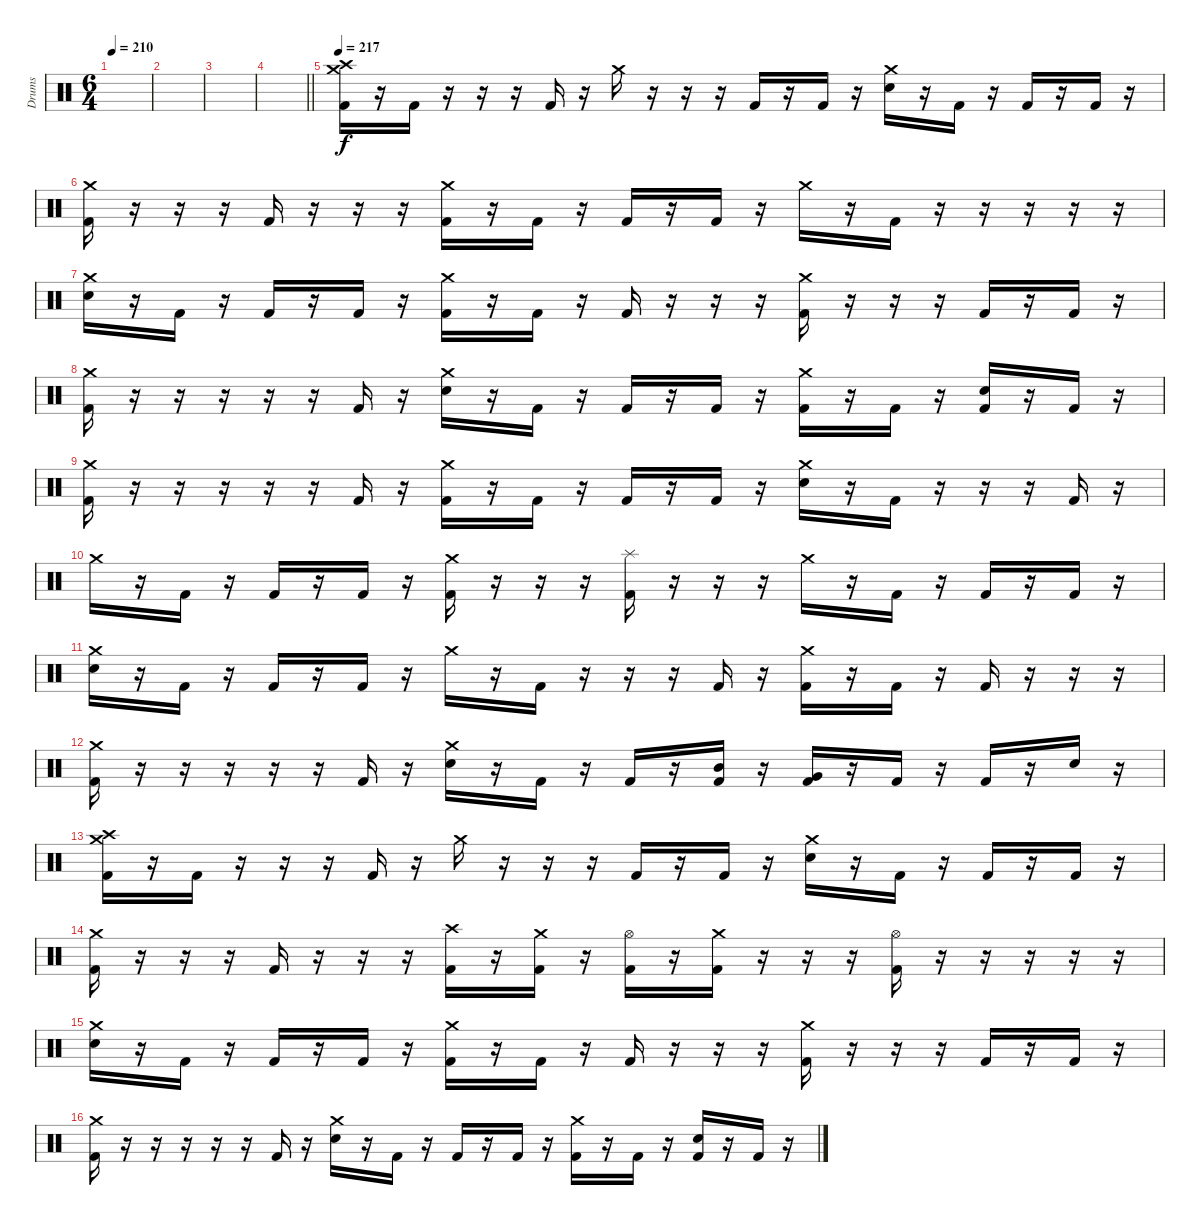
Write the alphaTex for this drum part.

\track ("Drums" "Drums") {instrument percussion}
\staff {score}
\articulation defaults
\ts (6 4)
\tempo 210
\clef neutral
\ks c
|
|
|
\barLineRight lightlight
|
\section ("" "")
\tempo 217
("Crash medium (hit)" "Crash high (hit)" "Kick (hit) 2").16 r.16 "Kick (hit) 2".16 r.16 r.16 r.16 "Kick (hit) 2".16 r.16 "Crash medium (hit)".16 r.16 r.16 r.16 "Kick (hit) 2".16 r.16 "Kick (hit) 2".16 r.16 ("Crash medium (hit)" "Electric Snare (hit)").16 r.16 "Kick (hit) 2".16 r.16 "Kick (hit) 2".16 r.16 "Kick (hit) 2".16 r.16 |
("Crash medium (hit)" "Kick (hit) 2").16 r.16 r.16 r.16 "Kick (hit) 2".16 r.16 r.16 r.16 ("Crash medium (hit)" "Kick (hit) 2").16 r.16 "Kick (hit) 2".16 r.16 "Kick (hit) 2".16 r.16 "Kick (hit) 2".16 r.16 "Crash medium (hit)".16 r.16 "Kick (hit) 2".16 r.16 r.16 r.16 r.16 r.16 |
("Crash medium (hit)" "Electric Snare (hit)").16 r.16 "Kick (hit) 2".16 r.16 "Kick (hit) 2".16 r.16 "Kick (hit) 2".16 r.16 ("Crash medium (hit)" "Kick (hit) 2").16 r.16 "Kick (hit) 2".16 r.16 "Kick (hit) 2".16 r.16 r.16 r.16 ("Crash medium (hit)" "Kick (hit) 2").16 r.16 r.16 r.16 "Kick (hit) 2".16 r.16 "Kick (hit) 2".16 r.16 |
("Crash medium (hit)" "Kick (hit) 2").16 r.16 r.16 r.16 r.16 r.16 "Kick (hit) 2".16 r.16 ("Crash medium (hit)" "Electric Snare (hit)").16 r.16 "Kick (hit) 2".16 r.16 "Kick (hit) 2".16 r.16 "Kick (hit) 2".16 r.16 ("Crash medium (hit)" "Kick (hit) 2").16 r.16 "Kick (hit) 2".16 r.16 ("Electric Snare (hit)" "Kick (hit) 2").16 r.16 "Kick (hit) 2".16 r.16 |
("Crash medium (hit)" "Kick (hit) 2").16 r.16 r.16 r.16 r.16 r.16 "Kick (hit) 2".16 r.16 ("Crash medium (hit)" "Kick (hit) 2").16 r.16 "Kick (hit) 2".16 r.16 "Kick (hit) 2".16 r.16 "Kick (hit) 2".16 r.16 ("Crash medium (hit)" "Electric Snare (hit)").16 r.16 "Kick (hit) 2".16 r.16 r.16 r.16 "Kick (hit) 2".16 r.16 |
"Crash medium (hit)".16 r.16 "Kick (hit) 2".16 r.16 "Kick (hit) 2".16 r.16 "Kick (hit) 2".16 r.16 ("Crash medium (hit)" "Kick (hit) 2").16 r.16 r.16 r.16 ("Splash (hit)" "Kick (hit) 2").16 r.16 r.16 r.16 "Crash medium (hit)".16 r.16 "Kick (hit) 2".16 r.16 "Kick (hit) 2".16 r.16 "Kick (hit) 2".16 r.16 |
("Crash medium (hit)" "Electric Snare (hit)").16 r.16 "Kick (hit) 2".16 r.16 "Kick (hit) 2".16 r.16 "Kick (hit) 2".16 r.16 "Crash medium (hit)".16 r.16 "Kick (hit) 2".16 r.16 r.16 r.16 "Kick (hit) 2".16 r.16 ("Crash medium (hit)" "Kick (hit) 2").16 r.16 "Kick (hit) 2".16 r.16 "Kick (hit) 2".16 r.16 r.16 r.16 |
("Crash medium (hit)" "Kick (hit) 2").16 r.16 r.16 r.16 r.16 r.16 "Kick (hit) 2".16 r.16 ("Crash medium (hit)" "Electric Snare (hit)").16 r.16 "Kick (hit) 2".16 r.16 "Kick (hit) 2".16 r.16 ("Mid Tom (hit)" "Kick (hit) 2").16 r.16 ("Very Low Tom (hit)" "Kick (hit) 2").16 r.16 "Kick (hit) 2".16 r.16 "Kick (hit) 2".16 r.16 "Electric Snare (hit)".16 r.16 |
("Crash medium (hit)" "Crash high (hit)" "Kick (hit) 2").16 r.16 "Kick (hit) 2".16 r.16 r.16 r.16 "Kick (hit) 2".16 r.16 "Crash medium (hit)".16 r.16 r.16 r.16 "Kick (hit) 2".16 r.16 "Kick (hit) 2".16 r.16 ("Crash medium (hit)" "Electric Snare (hit)").16 r.16 "Kick (hit) 2".16 r.16 "Kick (hit) 2".16 r.16 "Kick (hit) 2".16 r.16 |
("Crash medium (hit)" "Kick (hit) 2").16 r.16 r.16 r.16 "Kick (hit) 2".16 r.16 r.16 r.16 ("Crash high (hit)" "Kick (hit) 2").16 r.16 ("Crash medium (hit)" "Kick (hit) 2").16 r.16 ("Hi-Hat (open)" "Kick (hit) 2").16 r.16 ("Crash medium (hit)" "Kick (hit) 2").16 r.16 r.16 r.16 ("Hi-Hat (open)" "Kick (hit) 2").16 r.16 r.16 r.16 r.16 r.16 |
("Crash medium (hit)" "Electric Snare (hit)").16 r.16 "Kick (hit) 2".16 r.16 "Kick (hit) 2".16 r.16 "Kick (hit) 2".16 r.16 ("Crash medium (hit)" "Kick (hit) 2").16 r.16 "Kick (hit) 2".16 r.16 "Kick (hit) 2".16 r.16 r.16 r.16 ("Crash medium (hit)" "Kick (hit) 2").16 r.16 r.16 r.16 "Kick (hit) 2".16 r.16 "Kick (hit) 2".16 r.16 |
("Crash medium (hit)" "Kick (hit) 2").16 r.16 r.16 r.16 r.16 r.16 "Kick (hit) 2".16 r.16 ("Crash medium (hit)" "Electric Snare (hit)").16 r.16 "Kick (hit) 2".16 r.16 "Kick (hit) 2".16 r.16 "Kick (hit) 2".16 r.16 ("Crash medium (hit)" "Kick (hit) 2").16 r.16 "Kick (hit) 2".16 r.16 ("Electric Snare (hit)" "Kick (hit) 2").16 r.16 "Kick (hit) 2".16 r.16
